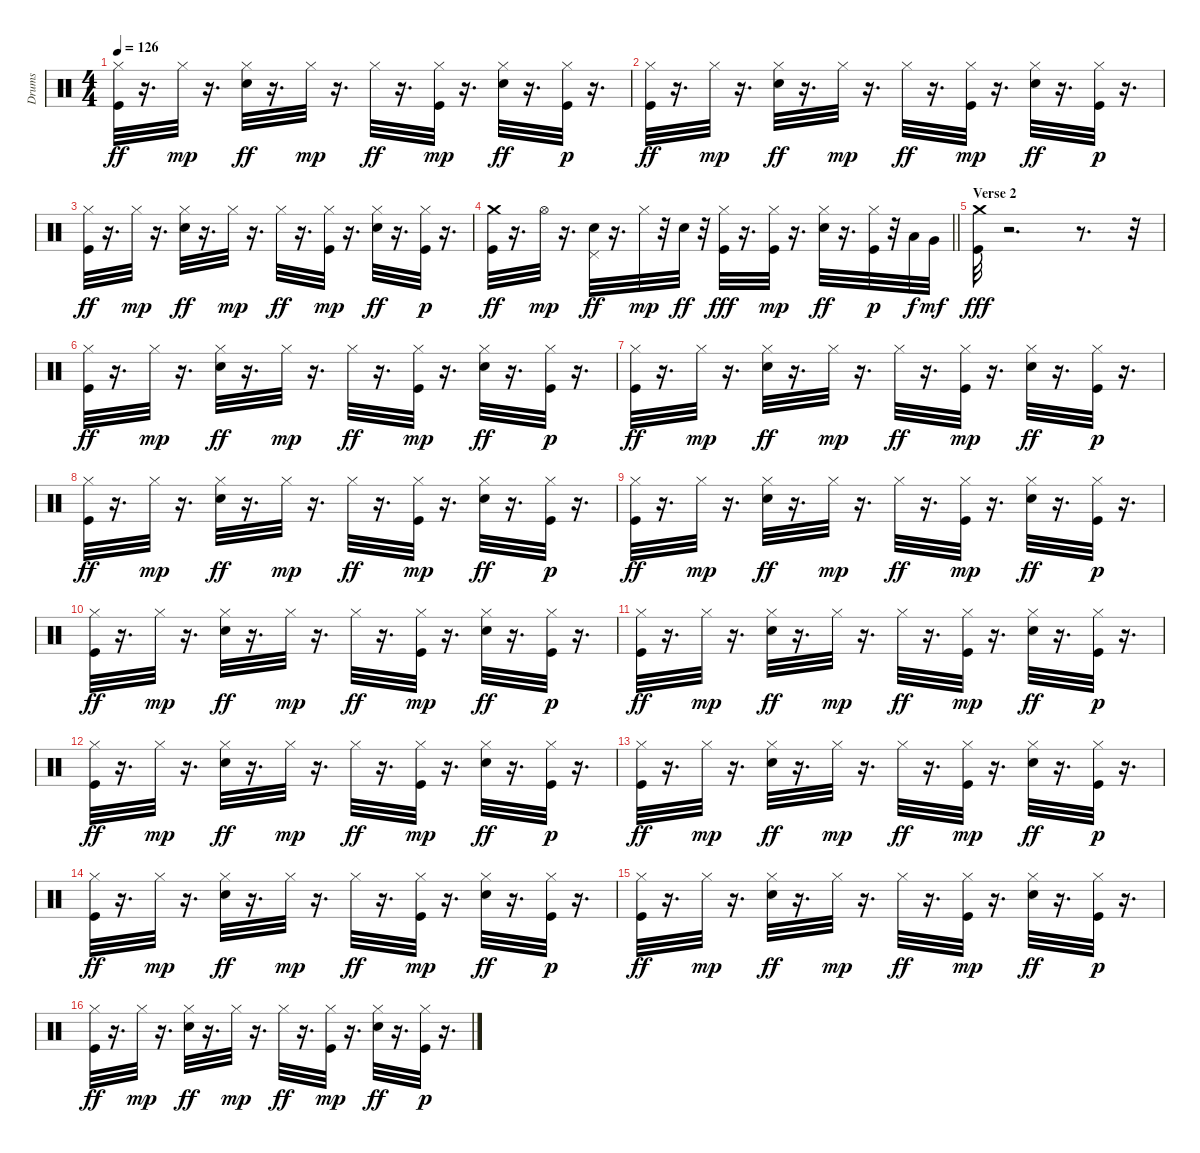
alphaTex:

\track ("Drums" "Drums") {instrument percussion}
\staff {score}
\articulation defaults
\ts (4 4)
\tempo 126
\clef neutral
\ks c
("Kick (hit)" "Hi-Hat (closed)").32{dy ff} r.16{d} "Hi-Hat (closed)".32{dy mp} r.16{d} ("Hi-Hat (closed)" "Electric Snare (hit)").32{dy ff} r.16{d} "Hi-Hat (closed)".32{dy mp} r.16{d} "Hi-Hat (closed)".32{dy ff} r.16{d} ("Kick (hit)" "Hi-Hat (closed)").32{dy mp} r.16{d} ("Electric Snare (hit)" "Hi-Hat (closed)").32{dy ff} r.16{d} ("Kick (hit)" "Hi-Hat (closed)").32{dy p} r.16{d} |
("Kick (hit)" "Hi-Hat (closed)").32{dy ff} r.16{d} "Hi-Hat (closed)".32{dy mp} r.16{d} ("Hi-Hat (closed)" "Electric Snare (hit)").32{dy ff} r.16{d} "Hi-Hat (closed)".32{dy mp} r.16{d} "Hi-Hat (closed)".32{dy ff} r.16{d} ("Kick (hit)" "Hi-Hat (closed)").32{dy mp} r.16{d} ("Electric Snare (hit)" "Hi-Hat (closed)").32{dy ff} r.16{d} ("Kick (hit)" "Hi-Hat (closed)").32{dy p} r.16{d} |
("Kick (hit)" "Hi-Hat (closed)").32{dy ff} r.16{d} "Hi-Hat (closed)".32{dy mp} r.16{d} ("Hi-Hat (closed)" "Electric Snare (hit)").32{dy ff} r.16{d} "Hi-Hat (closed)".32{dy mp} r.16{d} "Hi-Hat (closed)".32{dy ff} r.16{d} ("Kick (hit)" "Hi-Hat (closed)").32{dy mp} r.16{d} ("Electric Snare (hit)" "Hi-Hat (closed)").32{dy ff} r.16{d} ("Kick (hit)" "Hi-Hat (closed)").32{dy p} r.16{d} |
\barLineRight lightlight
("Kick (hit)" "Crash medium (hit)").32{dy ff} r.16{d} "Hi-Hat (open)".32{dy mp} r.16{d} ("Pedal Hi-Hat (hit)" "Electric Snare (hit)").32{dy ff} r.16{d} "Hi-Hat (closed)".32{dy mp} r.32 "Electric Snare (hit)".32{dy ff} r.32 ("Hi-Hat (closed)" "Kick (hit)").32{dy fff} r.16{d} ("Kick (hit)" "Hi-Hat (closed)").32{dy mp} r.16{d} ("Hi-Hat (closed)" "Electric Snare (hit)").32{dy ff} r.16{d} ("Kick (hit)" "Hi-Hat (closed)").32{dy p} r.32 "Low Tom (hit)".32{dy f} "Very Low Tom (hit)".32{dy mf} |
\section ("" "Verse 2")
("Crash medium (hit)" "Kick (hit)").32{dy fff} r.2{d} r.8{d} r.32 |
("Kick (hit)" "Hi-Hat (closed)").32{dy ff} r.16{d} "Hi-Hat (closed)".32{dy mp} r.16{d} ("Hi-Hat (closed)" "Electric Snare (hit)").32{dy ff} r.16{d} "Hi-Hat (closed)".32{dy mp} r.16{d} "Hi-Hat (closed)".32{dy ff} r.16{d} ("Kick (hit)" "Hi-Hat (closed)").32{dy mp} r.16{d} ("Electric Snare (hit)" "Hi-Hat (closed)").32{dy ff} r.16{d} ("Kick (hit)" "Hi-Hat (closed)").32{dy p} r.16{d} |
("Kick (hit)" "Hi-Hat (closed)").32{dy ff} r.16{d} "Hi-Hat (closed)".32{dy mp} r.16{d} ("Hi-Hat (closed)" "Electric Snare (hit)").32{dy ff} r.16{d} "Hi-Hat (closed)".32{dy mp} r.16{d} "Hi-Hat (closed)".32{dy ff} r.16{d} ("Kick (hit)" "Hi-Hat (closed)").32{dy mp} r.16{d} ("Electric Snare (hit)" "Hi-Hat (closed)").32{dy ff} r.16{d} ("Kick (hit)" "Hi-Hat (closed)").32{dy p} r.16{d} |
("Kick (hit)" "Hi-Hat (closed)").32{dy ff} r.16{d} "Hi-Hat (closed)".32{dy mp} r.16{d} ("Hi-Hat (closed)" "Electric Snare (hit)").32{dy ff} r.16{d} "Hi-Hat (closed)".32{dy mp} r.16{d} "Hi-Hat (closed)".32{dy ff} r.16{d} ("Kick (hit)" "Hi-Hat (closed)").32{dy mp} r.16{d} ("Electric Snare (hit)" "Hi-Hat (closed)").32{dy ff} r.16{d} ("Kick (hit)" "Hi-Hat (closed)").32{dy p} r.16{d} |
("Kick (hit)" "Hi-Hat (closed)").32{dy ff} r.16{d} "Hi-Hat (closed)".32{dy mp} r.16{d} ("Hi-Hat (closed)" "Electric Snare (hit)").32{dy ff} r.16{d} "Hi-Hat (closed)".32{dy mp} r.16{d} "Hi-Hat (closed)".32{dy ff} r.16{d} ("Kick (hit)" "Hi-Hat (closed)").32{dy mp} r.16{d} ("Electric Snare (hit)" "Hi-Hat (closed)").32{dy ff} r.16{d} ("Kick (hit)" "Hi-Hat (closed)").32{dy p} r.16{d} |
("Kick (hit)" "Hi-Hat (closed)").32{dy ff} r.16{d} "Hi-Hat (closed)".32{dy mp} r.16{d} ("Hi-Hat (closed)" "Electric Snare (hit)").32{dy ff} r.16{d} "Hi-Hat (closed)".32{dy mp} r.16{d} "Hi-Hat (closed)".32{dy ff} r.16{d} ("Kick (hit)" "Hi-Hat (closed)").32{dy mp} r.16{d} ("Electric Snare (hit)" "Hi-Hat (closed)").32{dy ff} r.16{d} ("Kick (hit)" "Hi-Hat (closed)").32{dy p} r.16{d} |
("Kick (hit)" "Hi-Hat (closed)").32{dy ff} r.16{d} "Hi-Hat (closed)".32{dy mp} r.16{d} ("Hi-Hat (closed)" "Electric Snare (hit)").32{dy ff} r.16{d} "Hi-Hat (closed)".32{dy mp} r.16{d} "Hi-Hat (closed)".32{dy ff} r.16{d} ("Kick (hit)" "Hi-Hat (closed)").32{dy mp} r.16{d} ("Electric Snare (hit)" "Hi-Hat (closed)").32{dy ff} r.16{d} ("Kick (hit)" "Hi-Hat (closed)").32{dy p} r.16{d} |
("Kick (hit)" "Hi-Hat (closed)").32{dy ff} r.16{d} "Hi-Hat (closed)".32{dy mp} r.16{d} ("Hi-Hat (closed)" "Electric Snare (hit)").32{dy ff} r.16{d} "Hi-Hat (closed)".32{dy mp} r.16{d} "Hi-Hat (closed)".32{dy ff} r.16{d} ("Kick (hit)" "Hi-Hat (closed)").32{dy mp} r.16{d} ("Electric Snare (hit)" "Hi-Hat (closed)").32{dy ff} r.16{d} ("Kick (hit)" "Hi-Hat (closed)").32{dy p} r.16{d} |
("Kick (hit)" "Hi-Hat (closed)").32{dy ff} r.16{d} "Hi-Hat (closed)".32{dy mp} r.16{d} ("Hi-Hat (closed)" "Electric Snare (hit)").32{dy ff} r.16{d} "Hi-Hat (closed)".32{dy mp} r.16{d} "Hi-Hat (closed)".32{dy ff} r.16{d} ("Kick (hit)" "Hi-Hat (closed)").32{dy mp} r.16{d} ("Electric Snare (hit)" "Hi-Hat (closed)").32{dy ff} r.16{d} ("Kick (hit)" "Hi-Hat (closed)").32{dy p} r.16{d} |
("Kick (hit)" "Hi-Hat (closed)").32{dy ff} r.16{d} "Hi-Hat (closed)".32{dy mp} r.16{d} ("Hi-Hat (closed)" "Electric Snare (hit)").32{dy ff} r.16{d} "Hi-Hat (closed)".32{dy mp} r.16{d} "Hi-Hat (closed)".32{dy ff} r.16{d} ("Kick (hit)" "Hi-Hat (closed)").32{dy mp} r.16{d} ("Electric Snare (hit)" "Hi-Hat (closed)").32{dy ff} r.16{d} ("Kick (hit)" "Hi-Hat (closed)").32{dy p} r.16{d} |
("Kick (hit)" "Hi-Hat (closed)").32{dy ff} r.16{d} "Hi-Hat (closed)".32{dy mp} r.16{d} ("Hi-Hat (closed)" "Electric Snare (hit)").32{dy ff} r.16{d} "Hi-Hat (closed)".32{dy mp} r.16{d} "Hi-Hat (closed)".32{dy ff} r.16{d} ("Kick (hit)" "Hi-Hat (closed)").32{dy mp} r.16{d} ("Electric Snare (hit)" "Hi-Hat (closed)").32{dy ff} r.16{d} ("Kick (hit)" "Hi-Hat (closed)").32{dy p} r.16{d} |
("Kick (hit)" "Hi-Hat (closed)").32{dy ff} r.16{d} "Hi-Hat (closed)".32{dy mp} r.16{d} ("Hi-Hat (closed)" "Electric Snare (hit)").32{dy ff} r.16{d} "Hi-Hat (closed)".32{dy mp} r.16{d} "Hi-Hat (closed)".32{dy ff} r.16{d} ("Kick (hit)" "Hi-Hat (closed)").32{dy mp} r.16{d} ("Electric Snare (hit)" "Hi-Hat (closed)").32{dy ff} r.16{d} ("Kick (hit)" "Hi-Hat (closed)").32{dy p} r.16{d}
